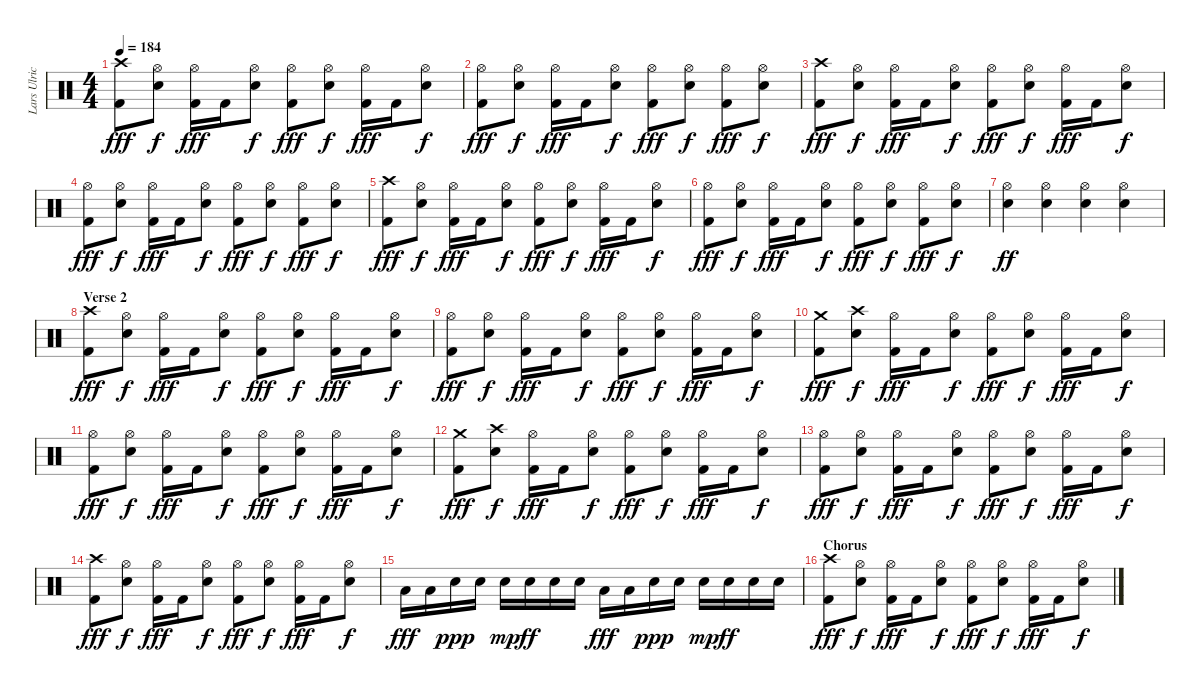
\track ("Lars Ulrich" "Lars Ulric") {instrument percussion}
\staff {score}
\articulation defaults
\ts (4 4)
\tempo 184
\clef neutral
\ks c
("Crash high (hit)" "Kick (hit) 2").8{dy fff} ("Hi-Hat (open)" "Electric Snare (hit)").8{dy f} ("Hi-Hat (open)" "Kick (hit) 2").16{dy fff} "Kick (hit) 2".16 ("Hi-Hat (open)" "Electric Snare (hit)").8{dy f} ("Hi-Hat (open)" "Kick (hit) 2").8{dy fff} ("Hi-Hat (open)" "Electric Snare (hit)").8{dy f} ("Hi-Hat (open)" "Kick (hit) 2").16{dy fff} "Kick (hit) 2".16 ("Hi-Hat (open)" "Electric Snare (hit)").8{dy f} |
("Hi-Hat (open)" "Kick (hit) 2").8{dy fff} ("Hi-Hat (open)" "Electric Snare (hit)").8{dy f} ("Hi-Hat (open)" "Kick (hit) 2").16{dy fff} "Kick (hit) 2".16 ("Hi-Hat (open)" "Electric Snare (hit)").8{dy f} ("Hi-Hat (open)" "Kick (hit) 2").8{dy fff} ("Hi-Hat (open)" "Electric Snare (hit)").8{dy f} ("Hi-Hat (open)" "Kick (hit) 2").8{dy fff} ("Hi-Hat (open)" "Electric Snare (hit)").8{dy f} |
("Crash high (hit)" "Kick (hit) 2").8{dy fff} ("Hi-Hat (open)" "Electric Snare (hit)").8{dy f} ("Hi-Hat (open)" "Kick (hit) 2").16{dy fff} "Kick (hit) 2".16 ("Hi-Hat (open)" "Electric Snare (hit)").8{dy f} ("Hi-Hat (open)" "Kick (hit) 2").8{dy fff} ("Hi-Hat (open)" "Electric Snare (hit)").8{dy f} ("Hi-Hat (open)" "Kick (hit) 2").16{dy fff} "Kick (hit) 2".16 ("Hi-Hat (open)" "Electric Snare (hit)").8{dy f} |
("Hi-Hat (open)" "Kick (hit) 2").8{dy fff} ("Hi-Hat (open)" "Electric Snare (hit)").8{dy f} ("Hi-Hat (open)" "Kick (hit) 2").16{dy fff} "Kick (hit) 2".16 ("Hi-Hat (open)" "Electric Snare (hit)").8{dy f} ("Hi-Hat (open)" "Kick (hit) 2").8{dy fff} ("Hi-Hat (open)" "Electric Snare (hit)").8{dy f} ("Hi-Hat (open)" "Kick (hit) 2").8{dy fff} ("Hi-Hat (open)" "Electric Snare (hit)").8{dy f} |
("Crash high (hit)" "Kick (hit) 2").8{dy fff} ("Hi-Hat (open)" "Electric Snare (hit)").8{dy f} ("Hi-Hat (open)" "Kick (hit) 2").16{dy fff} "Kick (hit) 2".16 ("Hi-Hat (open)" "Electric Snare (hit)").8{dy f} ("Hi-Hat (open)" "Kick (hit) 2").8{dy fff} ("Hi-Hat (open)" "Electric Snare (hit)").8{dy f} ("Hi-Hat (open)" "Kick (hit) 2").16{dy fff} "Kick (hit) 2".16 ("Hi-Hat (open)" "Electric Snare (hit)").8{dy f} |
("Hi-Hat (open)" "Kick (hit) 2").8{dy fff} ("Hi-Hat (open)" "Electric Snare (hit)").8{dy f} ("Hi-Hat (open)" "Kick (hit) 2").16{dy fff} "Kick (hit) 2".16 ("Hi-Hat (open)" "Electric Snare (hit)").8{dy f} ("Hi-Hat (open)" "Kick (hit) 2").8{dy fff} ("Hi-Hat (open)" "Electric Snare (hit)").8{dy f} ("Hi-Hat (open)" "Kick (hit) 2").8{dy fff} ("Hi-Hat (open)" "Electric Snare (hit)").8{dy f} |
("Hi-Hat (open)" "Electric Snare (hit)").4{dy ff} ("Hi-Hat (open)" "Electric Snare (hit)").4 ("Hi-Hat (open)" "Electric Snare (hit)").4 ("Hi-Hat (open)" "Electric Snare (hit)").4 |
\section ("" "Verse 2")
("Crash high (hit)" "Kick (hit) 2").8{dy fff} ("Hi-Hat (open)" "Electric Snare (hit)").8{dy f} ("Hi-Hat (open)" "Kick (hit) 2").16{dy fff} "Kick (hit) 2".16 ("Hi-Hat (open)" "Electric Snare (hit)").8{dy f} ("Hi-Hat (open)" "Kick (hit) 2").8{dy fff} ("Hi-Hat (open)" "Electric Snare (hit)").8{dy f} ("Hi-Hat (open)" "Kick (hit) 2").16{dy fff} "Kick (hit) 2".16 ("Hi-Hat (open)" "Electric Snare (hit)").8{dy f} |
("Hi-Hat (open)" "Kick (hit) 2").8{dy fff} ("Hi-Hat (open)" "Electric Snare (hit)").8{dy f} ("Hi-Hat (open)" "Kick (hit) 2").16{dy fff} "Kick (hit) 2".16 ("Hi-Hat (open)" "Electric Snare (hit)").8{dy f} ("Hi-Hat (open)" "Kick (hit) 2").8{dy fff} ("Hi-Hat (open)" "Electric Snare (hit)").8{dy f} ("Hi-Hat (open)" "Kick (hit) 2").16{dy fff} "Kick (hit) 2".16 ("Hi-Hat (open)" "Electric Snare (hit)").8{dy f} |
("Crash medium (hit)" "Kick (hit) 2").8{dy fff} ("Crash high (hit)" "Electric Snare (hit)").8{dy f} ("Hi-Hat (open)" "Kick (hit) 2").16{dy fff} "Kick (hit) 2".16 ("Hi-Hat (open)" "Electric Snare (hit)").8{dy f} ("Hi-Hat (open)" "Kick (hit) 2").8{dy fff} ("Hi-Hat (open)" "Electric Snare (hit)").8{dy f} ("Hi-Hat (open)" "Kick (hit) 2").16{dy fff} "Kick (hit) 2".16 ("Hi-Hat (open)" "Electric Snare (hit)").8{dy f} |
("Hi-Hat (open)" "Kick (hit) 2").8{dy fff} ("Hi-Hat (open)" "Electric Snare (hit)").8{dy f} ("Hi-Hat (open)" "Kick (hit) 2").16{dy fff} "Kick (hit) 2".16 ("Hi-Hat (open)" "Electric Snare (hit)").8{dy f} ("Hi-Hat (open)" "Kick (hit) 2").8{dy fff} ("Hi-Hat (open)" "Electric Snare (hit)").8{dy f} ("Hi-Hat (open)" "Kick (hit) 2").16{dy fff} "Kick (hit) 2".16 ("Hi-Hat (open)" "Electric Snare (hit)").8{dy f} |
("Crash medium (hit)" "Kick (hit) 2").8{dy fff} ("Crash high (hit)" "Electric Snare (hit)").8{dy f} ("Hi-Hat (open)" "Kick (hit) 2").16{dy fff} "Kick (hit) 2".16 ("Hi-Hat (open)" "Electric Snare (hit)").8{dy f} ("Hi-Hat (open)" "Kick (hit) 2").8{dy fff} ("Hi-Hat (open)" "Electric Snare (hit)").8{dy f} ("Hi-Hat (open)" "Kick (hit) 2").16{dy fff} "Kick (hit) 2".16 ("Hi-Hat (open)" "Electric Snare (hit)").8{dy f} |
("Hi-Hat (open)" "Kick (hit) 2").8{dy fff} ("Hi-Hat (open)" "Electric Snare (hit)").8{dy f} ("Hi-Hat (open)" "Kick (hit) 2").16{dy fff} "Kick (hit) 2".16 ("Hi-Hat (open)" "Electric Snare (hit)").8{dy f} ("Hi-Hat (open)" "Kick (hit) 2").8{dy fff} ("Hi-Hat (open)" "Electric Snare (hit)").8{dy f} ("Hi-Hat (open)" "Kick (hit) 2").16{dy fff} "Kick (hit) 2".16 ("Hi-Hat (open)" "Electric Snare (hit)").8{dy f} |
("Crash high (hit)" "Kick (hit) 2").8{dy fff} ("Hi-Hat (open)" "Electric Snare (hit)").8{dy f} ("Hi-Hat (open)" "Kick (hit) 2").16{dy fff} "Kick (hit) 2".16 ("Hi-Hat (open)" "Electric Snare (hit)").8{dy f} ("Hi-Hat (open)" "Kick (hit) 2").8{dy fff} ("Hi-Hat (open)" "Electric Snare (hit)").8{dy f} ("Hi-Hat (open)" "Kick (hit) 2").16{dy fff} "Kick (hit) 2".16 ("Hi-Hat (open)" "Electric Snare (hit)").8{dy f} |
"Low Tom (hit)".16{dy fff} "Low Tom (hit)".16 "Electric Snare (hit)".16{dy ppp} "Electric Snare (hit)".16 "Electric Snare (hit)".16{dy mp} "Electric Snare (hit)".16{dy ff} "Electric Snare (hit)".16 "Electric Snare (hit)".16 "Low Tom (hit)".16{dy fff} "Low Tom (hit)".16 "Electric Snare (hit)".16{dy ppp} "Electric Snare (hit)".16 "Electric Snare (hit)".16{dy mp} "Electric Snare (hit)".16{dy ff} "Electric Snare (hit)".16 "Electric Snare (hit)".16 |
\section ("" "Chorus")
("Crash high (hit)" "Kick (hit) 2").8{dy fff} ("Hi-Hat (open)" "Electric Snare (hit)").8{dy f} ("Hi-Hat (open)" "Kick (hit) 2").16{dy fff} "Kick (hit) 2".16 ("Hi-Hat (open)" "Electric Snare (hit)").8{dy f} ("Hi-Hat (open)" "Kick (hit) 2").8{dy fff} ("Hi-Hat (open)" "Electric Snare (hit)").8{dy f} ("Hi-Hat (open)" "Kick (hit) 2").16{dy fff} "Kick (hit) 2".16 ("Hi-Hat (open)" "Electric Snare (hit)").8{dy f}
